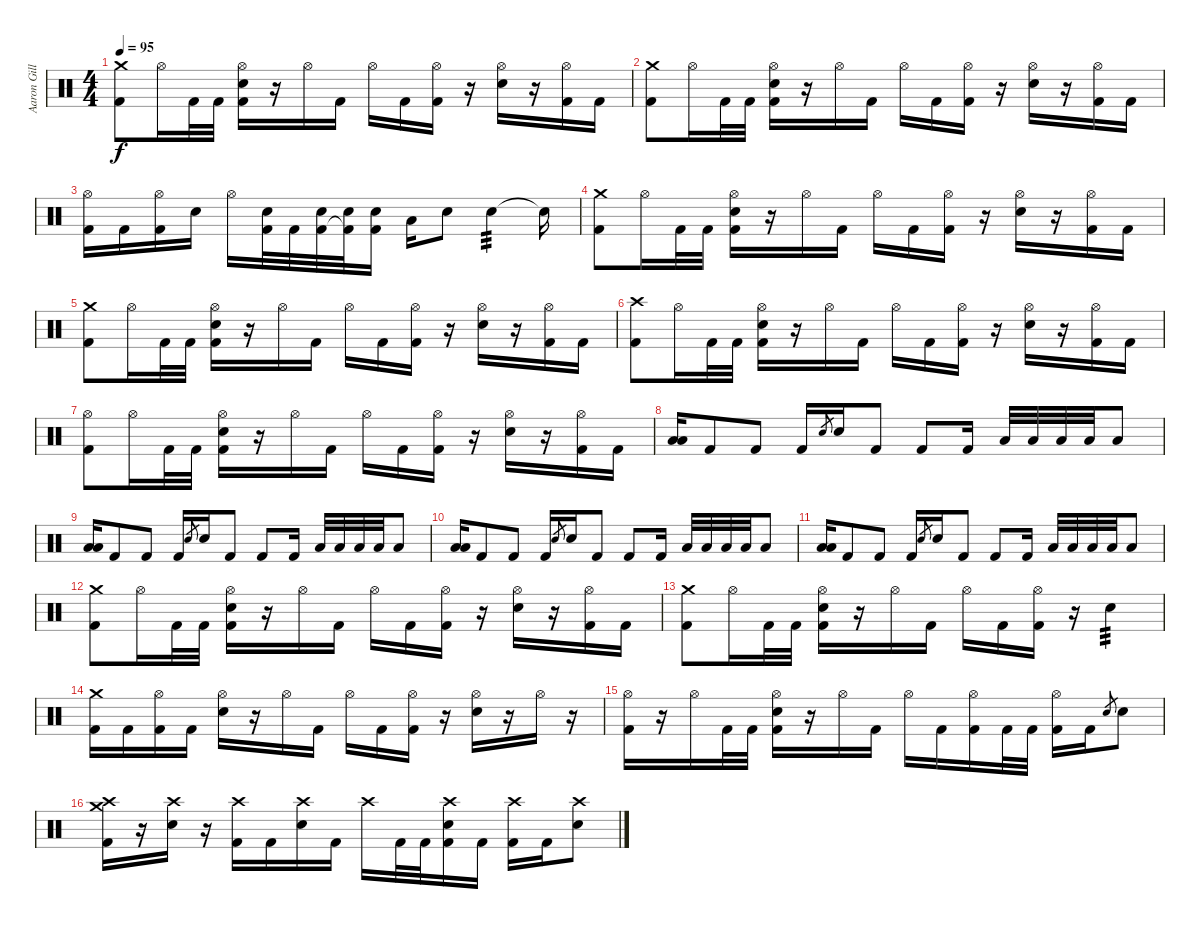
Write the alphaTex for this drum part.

\track ("Aaron Gillespie" "Aaron Gill") {instrument percussion}
\staff {score}
\articulation defaults
\ts (4 4)
\tempo 95
\clef neutral
\ks c
("Crash medium (hit)" "Kick (hit) 2").8{dy f} "Hi-Hat (open)".16 "Kick (hit) 2".32 "Kick (hit) 2".32 ("Electric Snare (hit)" "Hi-Hat (open)" "Kick (hit) 2").16 r.16 "Hi-Hat (open)".16 "Kick (hit) 2".16 "Hi-Hat (open)".16 "Kick (hit) 2".16 ("Hi-Hat (open)" "Kick (hit) 2").16 r.16 ("Electric Snare (hit)" "Hi-Hat (open)").16 r.16 ("Hi-Hat (open)" "Kick (hit) 2").16 "Kick (hit) 2".16 |
("Crash medium (hit)" "Kick (hit) 2").8 "Hi-Hat (open)".16 "Kick (hit) 2".32 "Kick (hit) 2".32 ("Electric Snare (hit)" "Hi-Hat (open)" "Kick (hit) 2").16 r.16 "Hi-Hat (open)".16 "Kick (hit) 2".16 "Hi-Hat (open)".16 "Kick (hit) 2".16 ("Hi-Hat (open)" "Kick (hit) 2").16 r.16 ("Electric Snare (hit)" "Hi-Hat (open)").16 r.16 ("Hi-Hat (open)" "Kick (hit) 2").16 "Kick (hit) 2".16 |
("Hi-Hat (open)" "Kick (hit) 2").16 "Kick (hit) 2".16 ("Hi-Hat (open)" "Kick (hit) 2").16 "Electric Snare (hit)".16 "Hi-Hat (open)".16 ("Electric Snare (hit)" "Kick (hit) 2").32 "Kick (hit) 2".32 ("Electric Snare (hit)" "Kick (hit) 2").32 ("Electric Snare (hit)" "Kick (hit) 2"{t}).32 ("Electric Snare (hit)" "Kick (hit) 2").16 "Low Floor Tom (hit)".16 "Electric Snare (hit)".8 "Electric Snare (hit)".4{tp 3} "Electric Snare (hit)"{t}.16 |
("Crash medium (hit)" "Kick (hit) 2").8 "Hi-Hat (open)".16 "Kick (hit) 2".32 "Kick (hit) 2".32 ("Electric Snare (hit)" "Hi-Hat (open)" "Kick (hit) 2").16 r.16 "Hi-Hat (open)".16 "Kick (hit) 2".16 "Hi-Hat (open)".16 "Kick (hit) 2".16 ("Hi-Hat (open)" "Kick (hit) 2").16 r.16 ("Electric Snare (hit)" "Hi-Hat (open)").16 r.16 ("Hi-Hat (open)" "Kick (hit) 2").16 "Kick (hit) 2".16 |
("Crash medium (hit)" "Kick (hit) 2").8 "Hi-Hat (open)".16 "Kick (hit) 2".32 "Kick (hit) 2".32 ("Electric Snare (hit)" "Hi-Hat (open)" "Kick (hit) 2").16 r.16 "Hi-Hat (open)".16 "Kick (hit) 2".16 "Hi-Hat (open)".16 "Kick (hit) 2".16 ("Hi-Hat (open)" "Kick (hit) 2").16 r.16 ("Electric Snare (hit)" "Hi-Hat (open)").16 r.16 ("Hi-Hat (open)" "Kick (hit) 2").16 "Kick (hit) 2".16 |
("Crash high (hit)" "Kick (hit) 2").8 "Hi-Hat (open)".16 "Kick (hit) 2".32 "Kick (hit) 2".32 ("Electric Snare (hit)" "Hi-Hat (open)" "Kick (hit) 2").16 r.16 "Hi-Hat (open)".16 "Kick (hit) 2".16 "Hi-Hat (open)".16 "Kick (hit) 2".16 ("Hi-Hat (open)" "Kick (hit) 2").16 r.16 ("Electric Snare (hit)" "Hi-Hat (open)").16 r.16 ("Hi-Hat (open)" "Kick (hit) 2").16 "Kick (hit) 2".16 |
("Hi-Hat (open)" "Kick (hit) 2").8 "Hi-Hat (open)".16 "Kick (hit) 2".32 "Kick (hit) 2".32 ("Electric Snare (hit)" "Hi-Hat (open)" "Kick (hit) 2").16 r.16 "Hi-Hat (open)".16 "Kick (hit) 2".16 "Hi-Hat (open)".16 "Kick (hit) 2".16 ("Hi-Hat (open)" "Kick (hit) 2").16 r.16 ("Electric Snare (hit)" "Hi-Hat (open)").16 r.16 ("Hi-Hat (open)" "Kick (hit) 2").16 "Kick (hit) 2".16 |
("Low Tom (hit)" "Low Floor Tom (hit)").16 "Kick (hit) 2".8 "Kick (hit) 2".8 "Kick (hit) 2".16 "Electric Snare (hit)".8{gr} "Electric Snare (hit)".16 "Kick (hit) 2".8 "Kick (hit) 2".8 "Kick (hit) 2".16 "Low Floor Tom (hit)".32 "Low Floor Tom (hit)".32 "Low Floor Tom (hit)".32 "Low Floor Tom (hit)".32 "Low Tom (hit)".8 |
("Low Tom (hit)" "Low Floor Tom (hit)").16 "Kick (hit) 2".8 "Kick (hit) 2".8 "Kick (hit) 2".16 "Electric Snare (hit)".8{gr} "Electric Snare (hit)".16 "Kick (hit) 2".8 "Kick (hit) 2".8 "Kick (hit) 2".16 "Low Floor Tom (hit)".32 "Low Floor Tom (hit)".32 "Low Floor Tom (hit)".32 "Low Floor Tom (hit)".32 "Low Tom (hit)".8 |
("Low Tom (hit)" "Low Floor Tom (hit)").16 "Kick (hit) 2".8 "Kick (hit) 2".8 "Kick (hit) 2".16 "Electric Snare (hit)".8{gr} "Electric Snare (hit)".16 "Kick (hit) 2".8 "Kick (hit) 2".8 "Kick (hit) 2".16 "Low Floor Tom (hit)".32 "Low Floor Tom (hit)".32 "Low Floor Tom (hit)".32 "Low Floor Tom (hit)".32 "Low Tom (hit)".8 |
("Low Tom (hit)" "Low Floor Tom (hit)").16 "Kick (hit) 2".8 "Kick (hit) 2".8 "Kick (hit) 2".16 "Electric Snare (hit)".8{gr} "Electric Snare (hit)".16 "Kick (hit) 2".8 "Kick (hit) 2".8 "Kick (hit) 2".16 "Low Floor Tom (hit)".32 "Low Floor Tom (hit)".32 "Low Floor Tom (hit)".32 "Low Floor Tom (hit)".32 "Low Tom (hit)".8 |
("Crash medium (hit)" "Kick (hit) 2").8 "Hi-Hat (open)".16 "Kick (hit) 2".32 "Kick (hit) 2".32 ("Electric Snare (hit)" "Hi-Hat (open)" "Kick (hit) 2").16 r.16 "Hi-Hat (open)".16 "Kick (hit) 2".16 "Hi-Hat (open)".16 "Kick (hit) 2".16 ("Hi-Hat (open)" "Kick (hit) 2").16 r.16 ("Electric Snare (hit)" "Hi-Hat (open)").16 r.16 ("Hi-Hat (open)" "Kick (hit) 2").16 "Kick (hit) 2".16 |
("Crash medium (hit)" "Kick (hit) 2").8 "Hi-Hat (open)".16 "Kick (hit) 2".32 "Kick (hit) 2".32 ("Electric Snare (hit)" "Hi-Hat (open)" "Kick (hit) 2").16 r.16 "Hi-Hat (open)".16 "Kick (hit) 2".16 "Hi-Hat (open)".16 "Kick (hit) 2".16 ("Hi-Hat (open)" "Kick (hit) 2").16 r.16 "Electric Snare (hit)".4{tp 3} |
("Crash medium (hit)" "Kick (hit) 2").16 "Kick (hit) 2".16 ("Hi-Hat (open)" "Kick (hit) 2").16 "Kick (hit) 2".16 ("Electric Snare (hit)" "Hi-Hat (open)").16 r.16 "Hi-Hat (open)".16 "Kick (hit) 2".16 "Hi-Hat (open)".16 "Kick (hit) 2".16 ("Hi-Hat (open)" "Kick (hit) 2").16 r.16 ("Electric Snare (hit)" "Hi-Hat (open)").16 r.16 "Hi-Hat (open)".16 r.16 |
("Hi-Hat (open)" "Kick (hit) 2").16 r.16 "Hi-Hat (open)".16 "Kick (hit) 2".32 "Kick (hit) 2".32 ("Electric Snare (hit)" "Hi-Hat (open)" "Kick (hit) 2").16 r.16 "Hi-Hat (open)".16 "Kick (hit) 2".16 "Hi-Hat (open)".16 "Kick (hit) 2".16 ("Hi-Hat (open)" "Kick (hit) 2").16 "Kick (hit) 2".32 "Kick (hit) 2".32 ("Hi-Hat (open)" "Kick (hit) 2").16 "Kick (hit) 2".16 "Electric Snare (hit)".8{gr} "Electric Snare (hit)".8 |
("Crash medium (hit)" "Crash high (hit)" "Kick (hit) 2").16 r.16 ("Electric Snare (hit)" "Crash high (hit)").16 r.16 ("Crash high (hit)" "Kick (hit) 2").16 "Kick (hit) 2".16 ("Electric Snare (hit)" "Crash high (hit)").16 "Kick (hit) 2".16 "Crash high (hit)".16 "Kick (hit) 2".32 "Kick (hit) 2".32 ("Crash high (hit)" "Electric Snare (hit)" "Kick (hit) 2").16 "Kick (hit) 2".16 ("Crash high (hit)" "Kick (hit) 2").16 "Kick (hit) 2".16 ("Electric Snare (hit)" "Crash high (hit)").8
